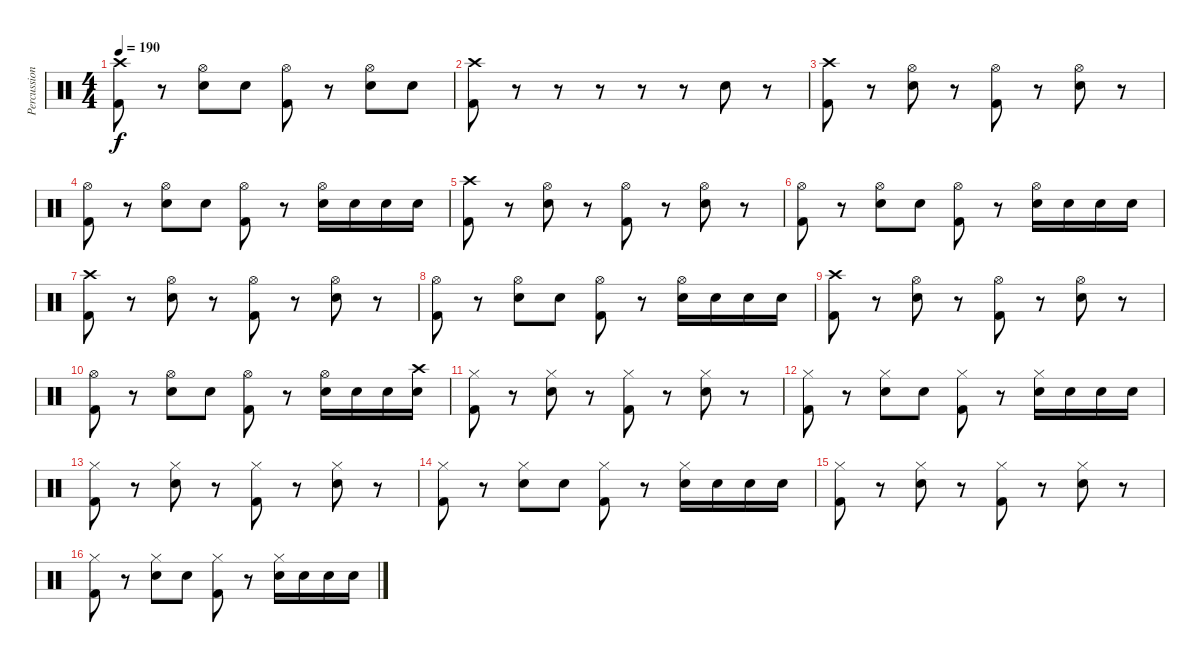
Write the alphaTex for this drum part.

\track ("Percussioni" "Percussion") {instrument percussion}
\staff {score}
\articulation defaults
\ts (4 4)
\tempo 190
\clef neutral
\ks c
("Kick (hit) 2" "Crash high (hit)").8{dy f} r.8 ("Electric Snare (hit)" "Hi-Hat (open)").8 "Electric Snare (hit)".8 ("Kick (hit) 2" "Hi-Hat (open)").8 r.8 ("Electric Snare (hit)" "Hi-Hat (open)").8 "Electric Snare (hit)".8 |
("Crash high (hit)" "Kick (hit) 2").8 r.8 r.8 r.8 r.8 r.8 "Electric Snare (hit)".8 r.8 |
("Kick (hit) 2" "Crash high (hit)").8 r.8 ("Electric Snare (hit)" "Hi-Hat (open)").8 r.8 ("Kick (hit) 2" "Hi-Hat (open)").8 r.8 ("Electric Snare (hit)" "Hi-Hat (open)").8 r.8 |
("Kick (hit) 2" "Hi-Hat (open)").8 r.8 ("Electric Snare (hit)" "Hi-Hat (open)").8 "Electric Snare (hit)".8 ("Kick (hit) 2" "Hi-Hat (open)").8 r.8 ("Electric Snare (hit)" "Hi-Hat (open)").16 "Electric Snare (hit)".16 "Electric Snare (hit)".16 "Electric Snare (hit)".16 |
("Kick (hit) 2" "Crash high (hit)").8 r.8 ("Electric Snare (hit)" "Hi-Hat (open)").8 r.8 ("Kick (hit) 2" "Hi-Hat (open)").8 r.8 ("Electric Snare (hit)" "Hi-Hat (open)").8 r.8 |
("Kick (hit) 2" "Hi-Hat (open)").8 r.8 ("Electric Snare (hit)" "Hi-Hat (open)").8 "Electric Snare (hit)".8 ("Kick (hit) 2" "Hi-Hat (open)").8 r.8 ("Electric Snare (hit)" "Hi-Hat (open)").16 "Electric Snare (hit)".16 "Electric Snare (hit)".16 "Electric Snare (hit)".16 |
("Kick (hit) 2" "Crash high (hit)").8 r.8 ("Electric Snare (hit)" "Hi-Hat (open)").8 r.8 ("Kick (hit) 2" "Hi-Hat (open)").8 r.8 ("Electric Snare (hit)" "Hi-Hat (open)").8 r.8 |
("Kick (hit) 2" "Hi-Hat (open)").8 r.8 ("Electric Snare (hit)" "Hi-Hat (open)").8 "Electric Snare (hit)".8 ("Kick (hit) 2" "Hi-Hat (open)").8 r.8 ("Electric Snare (hit)" "Hi-Hat (open)").16 "Electric Snare (hit)".16 "Electric Snare (hit)".16 "Electric Snare (hit)".16 |
("Kick (hit) 2" "Crash high (hit)").8 r.8 ("Electric Snare (hit)" "Hi-Hat (open)").8 r.8 ("Kick (hit) 2" "Hi-Hat (open)").8 r.8 ("Electric Snare (hit)" "Hi-Hat (open)").8 r.8 |
("Kick (hit) 2" "Hi-Hat (open)").8 r.8 ("Electric Snare (hit)" "Hi-Hat (open)").8 "Electric Snare (hit)".8 ("Kick (hit) 2" "Hi-Hat (open)").8 r.8 ("Electric Snare (hit)" "Hi-Hat (open)").16 "Electric Snare (hit)".16 "Electric Snare (hit)".16 ("Electric Snare (hit)" "Crash high (hit)").16 |
("Kick (hit) 2" "Hi-Hat (closed)").8 r.8 ("Electric Snare (hit)" "Hi-Hat (closed)").8 r.8 ("Kick (hit) 2" "Hi-Hat (closed)").8 r.8 ("Electric Snare (hit)" "Hi-Hat (closed)").8 r.8 |
("Kick (hit) 2" "Hi-Hat (closed)").8 r.8 ("Electric Snare (hit)" "Hi-Hat (closed)").8 "Electric Snare (hit)".8 ("Kick (hit) 2" "Hi-Hat (closed)").8 r.8 ("Electric Snare (hit)" "Hi-Hat (closed)").16 "Electric Snare (hit)".16 "Electric Snare (hit)".16 "Electric Snare (hit)".16 |
("Kick (hit) 2" "Hi-Hat (closed)").8 r.8 ("Electric Snare (hit)" "Hi-Hat (closed)").8 r.8 ("Kick (hit) 2" "Hi-Hat (closed)").8 r.8 ("Electric Snare (hit)" "Hi-Hat (closed)").8 r.8 |
("Kick (hit) 2" "Hi-Hat (closed)").8 r.8 ("Electric Snare (hit)" "Hi-Hat (closed)").8 "Electric Snare (hit)".8 ("Kick (hit) 2" "Hi-Hat (closed)").8 r.8 ("Electric Snare (hit)" "Hi-Hat (closed)").16 "Electric Snare (hit)".16 "Electric Snare (hit)".16 "Electric Snare (hit)".16 |
("Kick (hit) 2" "Hi-Hat (closed)").8 r.8 ("Electric Snare (hit)" "Hi-Hat (closed)").8 r.8 ("Kick (hit) 2" "Hi-Hat (closed)").8 r.8 ("Electric Snare (hit)" "Hi-Hat (closed)").8 r.8 |
("Kick (hit) 2" "Hi-Hat (closed)").8 r.8 ("Electric Snare (hit)" "Hi-Hat (closed)").8 "Electric Snare (hit)".8 ("Kick (hit) 2" "Hi-Hat (closed)").8 r.8 ("Electric Snare (hit)" "Hi-Hat (closed)").16 "Electric Snare (hit)".16 "Electric Snare (hit)".16 "Electric Snare (hit)".16
